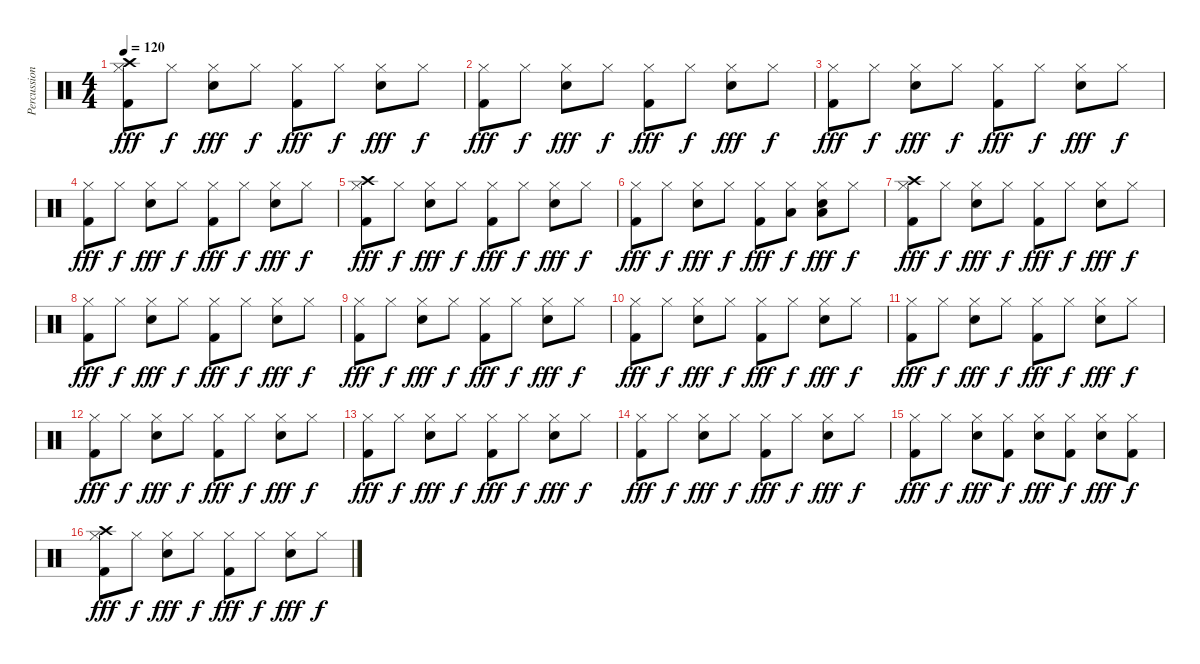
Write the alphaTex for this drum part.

\track ("Percussion" "Percussion") {instrument percussion}
\staff {score}
\articulation defaults
\ts (4 4)
\tempo 120
\clef neutral
\ks c
("Hi-Hat (closed)" "Kick (hit) 2" "Crash high (hit)").8{dy fff} "Hi-Hat (closed)".8{dy f} ("Hi-Hat (closed)" "Electric Snare (hit)").8{dy fff} "Hi-Hat (closed)".8{dy f} ("Hi-Hat (closed)" "Kick (hit) 2").8{dy fff} "Hi-Hat (closed)".8{dy f} ("Hi-Hat (closed)" "Electric Snare (hit)").8{dy fff} "Hi-Hat (closed)".8{dy f} |
("Hi-Hat (closed)" "Kick (hit) 2").8{dy fff} "Hi-Hat (closed)".8{dy f} ("Hi-Hat (closed)" "Electric Snare (hit)").8{dy fff} "Hi-Hat (closed)".8{dy f} ("Hi-Hat (closed)" "Kick (hit) 2").8{dy fff} "Hi-Hat (closed)".8{dy f} ("Hi-Hat (closed)" "Electric Snare (hit)").8{dy fff} "Hi-Hat (closed)".8{dy f} |
("Hi-Hat (closed)" "Kick (hit) 2").8{dy fff} "Hi-Hat (closed)".8{dy f} ("Hi-Hat (closed)" "Electric Snare (hit)").8{dy fff} "Hi-Hat (closed)".8{dy f} ("Hi-Hat (closed)" "Kick (hit) 2").8{dy fff} "Hi-Hat (closed)".8{dy f} ("Hi-Hat (closed)" "Electric Snare (hit)").8{dy fff} "Hi-Hat (closed)".8{dy f} |
("Hi-Hat (closed)" "Kick (hit) 2").8{dy fff} "Hi-Hat (closed)".8{dy f} ("Hi-Hat (closed)" "Electric Snare (hit)").8{dy fff} "Hi-Hat (closed)".8{dy f} ("Hi-Hat (closed)" "Kick (hit) 2").8{dy fff} "Hi-Hat (closed)".8{dy f} ("Hi-Hat (closed)" "Electric Snare (hit)").8{dy fff} "Hi-Hat (closed)".8{dy f} |
("Hi-Hat (closed)" "Kick (hit) 2" "Crash high (hit)").8{dy fff} "Hi-Hat (closed)".8{dy f} ("Hi-Hat (closed)" "Electric Snare (hit)").8{dy fff} "Hi-Hat (closed)".8{dy f} ("Hi-Hat (closed)" "Kick (hit) 2").8{dy fff} "Hi-Hat (closed)".8{dy f} ("Hi-Hat (closed)" "Electric Snare (hit)").8{dy fff} "Hi-Hat (closed)".8{dy f} |
("Hi-Hat (closed)" "Kick (hit) 2").8{dy fff} "Hi-Hat (closed)".8{dy f} ("Hi-Hat (closed)" "Electric Snare (hit)").8{dy fff} "Hi-Hat (closed)".8{dy f} ("Hi-Hat (closed)" "Kick (hit) 2").8{dy fff} ("Hi-Hat (closed)" "Low Floor Tom (hit)").8{dy f} ("Hi-Hat (closed)" "Electric Snare (hit)" "Low Floor Tom (hit)").8{dy fff} "Hi-Hat (closed)".8{dy f} |
("Hi-Hat (closed)" "Kick (hit) 2" "Crash high (hit)").8{dy fff} "Hi-Hat (closed)".8{dy f} ("Hi-Hat (closed)" "Electric Snare (hit)").8{dy fff} "Hi-Hat (closed)".8{dy f} ("Hi-Hat (closed)" "Kick (hit) 2").8{dy fff} "Hi-Hat (closed)".8{dy f} ("Hi-Hat (closed)" "Electric Snare (hit)").8{dy fff} "Hi-Hat (closed)".8{dy f} |
("Hi-Hat (closed)" "Kick (hit) 2").8{dy fff} "Hi-Hat (closed)".8{dy f} ("Hi-Hat (closed)" "Electric Snare (hit)").8{dy fff} "Hi-Hat (closed)".8{dy f} ("Hi-Hat (closed)" "Kick (hit) 2").8{dy fff} "Hi-Hat (closed)".8{dy f} ("Hi-Hat (closed)" "Electric Snare (hit)").8{dy fff} "Hi-Hat (closed)".8{dy f} |
("Hi-Hat (closed)" "Kick (hit) 2").8{dy fff} "Hi-Hat (closed)".8{dy f} ("Hi-Hat (closed)" "Electric Snare (hit)").8{dy fff} "Hi-Hat (closed)".8{dy f} ("Hi-Hat (closed)" "Kick (hit) 2").8{dy fff} "Hi-Hat (closed)".8{dy f} ("Hi-Hat (closed)" "Electric Snare (hit)").8{dy fff} "Hi-Hat (closed)".8{dy f} |
("Hi-Hat (closed)" "Kick (hit) 2").8{dy fff} "Hi-Hat (closed)".8{dy f} ("Hi-Hat (closed)" "Electric Snare (hit)").8{dy fff} "Hi-Hat (closed)".8{dy f} ("Hi-Hat (closed)" "Kick (hit) 2").8{dy fff} "Hi-Hat (closed)".8{dy f} ("Hi-Hat (closed)" "Electric Snare (hit)").8{dy fff} "Hi-Hat (closed)".8{dy f} |
("Hi-Hat (closed)" "Kick (hit) 2").8{dy fff} "Hi-Hat (closed)".8{dy f} ("Hi-Hat (closed)" "Electric Snare (hit)").8{dy fff} "Hi-Hat (closed)".8{dy f} ("Hi-Hat (closed)" "Kick (hit) 2").8{dy fff} "Hi-Hat (closed)".8{dy f} ("Hi-Hat (closed)" "Electric Snare (hit)").8{dy fff} "Hi-Hat (closed)".8{dy f} |
("Hi-Hat (closed)" "Kick (hit) 2").8{dy fff} "Hi-Hat (closed)".8{dy f} ("Hi-Hat (closed)" "Electric Snare (hit)").8{dy fff} "Hi-Hat (closed)".8{dy f} ("Hi-Hat (closed)" "Kick (hit) 2").8{dy fff} "Hi-Hat (closed)".8{dy f} ("Hi-Hat (closed)" "Electric Snare (hit)").8{dy fff} "Hi-Hat (closed)".8{dy f} |
("Hi-Hat (closed)" "Kick (hit) 2").8{dy fff} "Hi-Hat (closed)".8{dy f} ("Hi-Hat (closed)" "Electric Snare (hit)").8{dy fff} "Hi-Hat (closed)".8{dy f} ("Hi-Hat (closed)" "Kick (hit) 2").8{dy fff} "Hi-Hat (closed)".8{dy f} ("Hi-Hat (closed)" "Electric Snare (hit)").8{dy fff} "Hi-Hat (closed)".8{dy f} |
("Hi-Hat (closed)" "Kick (hit) 2").8{dy fff} "Hi-Hat (closed)".8{dy f} ("Hi-Hat (closed)" "Electric Snare (hit)").8{dy fff} "Hi-Hat (closed)".8{dy f} ("Hi-Hat (closed)" "Kick (hit) 2").8{dy fff} "Hi-Hat (closed)".8{dy f} ("Hi-Hat (closed)" "Electric Snare (hit)").8{dy fff} "Hi-Hat (closed)".8{dy f} |
("Hi-Hat (closed)" "Kick (hit) 2").8{dy fff} "Hi-Hat (closed)".8{dy f} ("Hi-Hat (closed)" "Electric Snare (hit)").8{dy fff} ("Hi-Hat (closed)" "Kick (hit) 2").8{dy f} ("Hi-Hat (closed)" "Electric Snare (hit)").8{dy fff} ("Hi-Hat (closed)" "Kick (hit) 2").8{dy f} ("Hi-Hat (closed)" "Electric Snare (hit)").8{dy fff} ("Hi-Hat (closed)" "Kick (hit) 2").8{dy f} |
("Hi-Hat (closed)" "Kick (hit) 2" "Crash high (hit)").8{dy fff} "Hi-Hat (closed)".8{dy f} ("Hi-Hat (closed)" "Electric Snare (hit)").8{dy fff} "Hi-Hat (closed)".8{dy f} ("Hi-Hat (closed)" "Kick (hit) 2").8{dy fff} "Hi-Hat (closed)".8{dy f} ("Hi-Hat (closed)" "Electric Snare (hit)").8{dy fff} "Hi-Hat (closed)".8{dy f}
